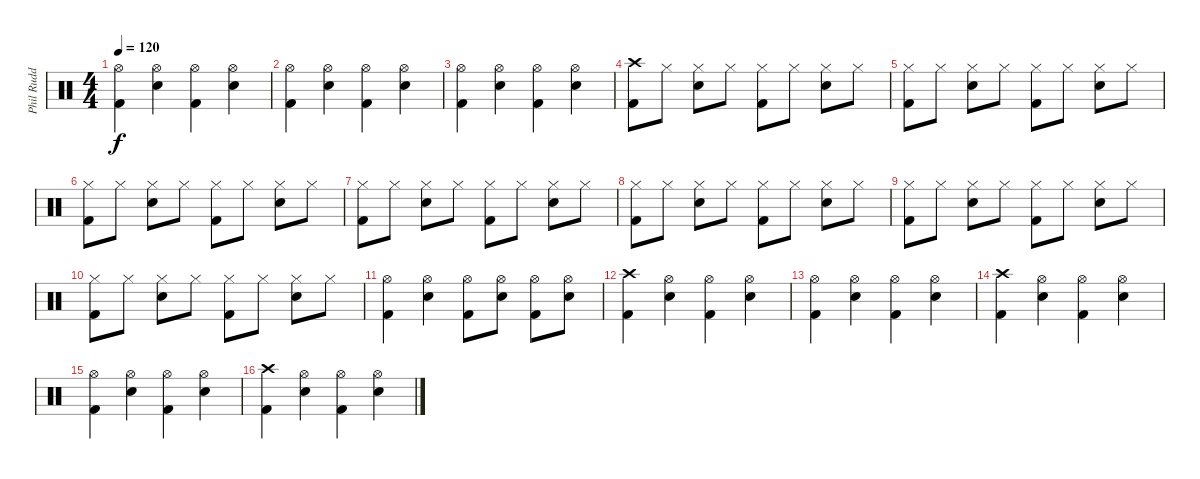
\track ("Phil Rudd (Drum)" "Phil Rudd ") {instrument percussion}
\staff {score}
\articulation defaults
\ts (4 4)
\tempo 120
\clef neutral
\ks c
("Hi-Hat (open)" "Kick (hit) 2").4{dy f} ("Hi-Hat (open)" "Snare (hit) 2").4 ("Hi-Hat (open)" "Kick (hit) 2").4 ("Hi-Hat (open)" "Snare (hit) 2").4 |
("Hi-Hat (open)" "Kick (hit) 2").4 ("Hi-Hat (open)" "Snare (hit) 2").4 ("Hi-Hat (open)" "Kick (hit) 2").4 ("Hi-Hat (open)" "Snare (hit) 2").4 |
("Hi-Hat (open)" "Kick (hit) 2").4 ("Hi-Hat (open)" "Snare (hit) 2").4 ("Hi-Hat (open)" "Kick (hit) 2").4 ("Hi-Hat (open)" "Snare (hit) 2").4 |
("Crash high (hit)" "Kick (hit) 2").8 "Hi-Hat (closed)".8 ("Hi-Hat (closed)" "Snare (hit) 2").8 "Hi-Hat (closed)".8 ("Hi-Hat (closed)" "Kick (hit) 2").8 "Hi-Hat (closed)".8 ("Hi-Hat (closed)" "Snare (hit) 2").8 "Hi-Hat (closed)".8 |
("Hi-Hat (closed)" "Kick (hit) 2").8 "Hi-Hat (closed)".8 ("Hi-Hat (closed)" "Snare (hit) 2").8 "Hi-Hat (closed)".8 ("Hi-Hat (closed)" "Kick (hit) 2").8 "Hi-Hat (closed)".8 ("Hi-Hat (closed)" "Snare (hit) 2").8 "Hi-Hat (closed)".8 |
("Hi-Hat (closed)" "Kick (hit) 2").8 "Hi-Hat (closed)".8 ("Hi-Hat (closed)" "Snare (hit) 2").8 "Hi-Hat (closed)".8 ("Hi-Hat (closed)" "Kick (hit) 2").8 "Hi-Hat (closed)".8 ("Hi-Hat (closed)" "Snare (hit) 2").8 "Hi-Hat (closed)".8 |
("Hi-Hat (closed)" "Kick (hit) 2").8 "Hi-Hat (closed)".8 ("Hi-Hat (closed)" "Snare (hit) 2").8 "Hi-Hat (closed)".8 ("Hi-Hat (closed)" "Kick (hit) 2").8 "Hi-Hat (closed)".8 ("Hi-Hat (closed)" "Snare (hit) 2").8 "Hi-Hat (closed)".8 |
("Hi-Hat (closed)" "Kick (hit) 2").8 "Hi-Hat (closed)".8 ("Hi-Hat (closed)" "Snare (hit) 2").8 "Hi-Hat (closed)".8 ("Hi-Hat (closed)" "Kick (hit) 2").8 "Hi-Hat (closed)".8 ("Hi-Hat (closed)" "Snare (hit) 2").8 "Hi-Hat (closed)".8 |
("Hi-Hat (closed)" "Kick (hit) 2").8 "Hi-Hat (closed)".8 ("Hi-Hat (closed)" "Snare (hit) 2").8 "Hi-Hat (closed)".8 ("Hi-Hat (closed)" "Kick (hit) 2").8 "Hi-Hat (closed)".8 ("Hi-Hat (closed)" "Snare (hit) 2").8 "Hi-Hat (closed)".8 |
("Hi-Hat (closed)" "Kick (hit) 2").8 "Hi-Hat (closed)".8 ("Hi-Hat (closed)" "Snare (hit) 2").8 "Hi-Hat (closed)".8 ("Hi-Hat (closed)" "Kick (hit) 2").8 "Hi-Hat (closed)".8 ("Hi-Hat (closed)" "Snare (hit) 2").8 "Hi-Hat (closed)".8 |
("Hi-Hat (open)" "Kick (hit) 2").4 ("Hi-Hat (open)" "Snare (hit) 2").4 ("Hi-Hat (open)" "Kick (hit) 2").8 ("Hi-Hat (open)" "Snare (hit) 2").8 ("Hi-Hat (open)" "Kick (hit) 2").8 ("Hi-Hat (open)" "Snare (hit) 2").8 |
("Crash high (hit)" "Kick (hit) 2").4 ("Hi-Hat (open)" "Snare (hit) 2").4 ("Hi-Hat (open)" "Kick (hit) 2").4 ("Hi-Hat (open)" "Snare (hit) 2").4 |
("Hi-Hat (open)" "Kick (hit) 2").4 ("Hi-Hat (open)" "Snare (hit) 2").4 ("Hi-Hat (open)" "Kick (hit) 2").4 ("Hi-Hat (open)" "Snare (hit) 2").4 |
("Crash high (hit)" "Kick (hit) 2").4 ("Hi-Hat (open)" "Snare (hit) 2").4 ("Hi-Hat (open)" "Kick (hit) 2").4 ("Hi-Hat (open)" "Snare (hit) 2").4 |
("Hi-Hat (open)" "Kick (hit) 2").4 ("Hi-Hat (open)" "Snare (hit) 2").4 ("Hi-Hat (open)" "Kick (hit) 2").4 ("Hi-Hat (open)" "Snare (hit) 2").4 |
("Crash high (hit)" "Kick (hit) 2").4 ("Hi-Hat (open)" "Snare (hit) 2").4 ("Hi-Hat (open)" "Kick (hit) 2").4 ("Hi-Hat (open)" "Snare (hit) 2").4
